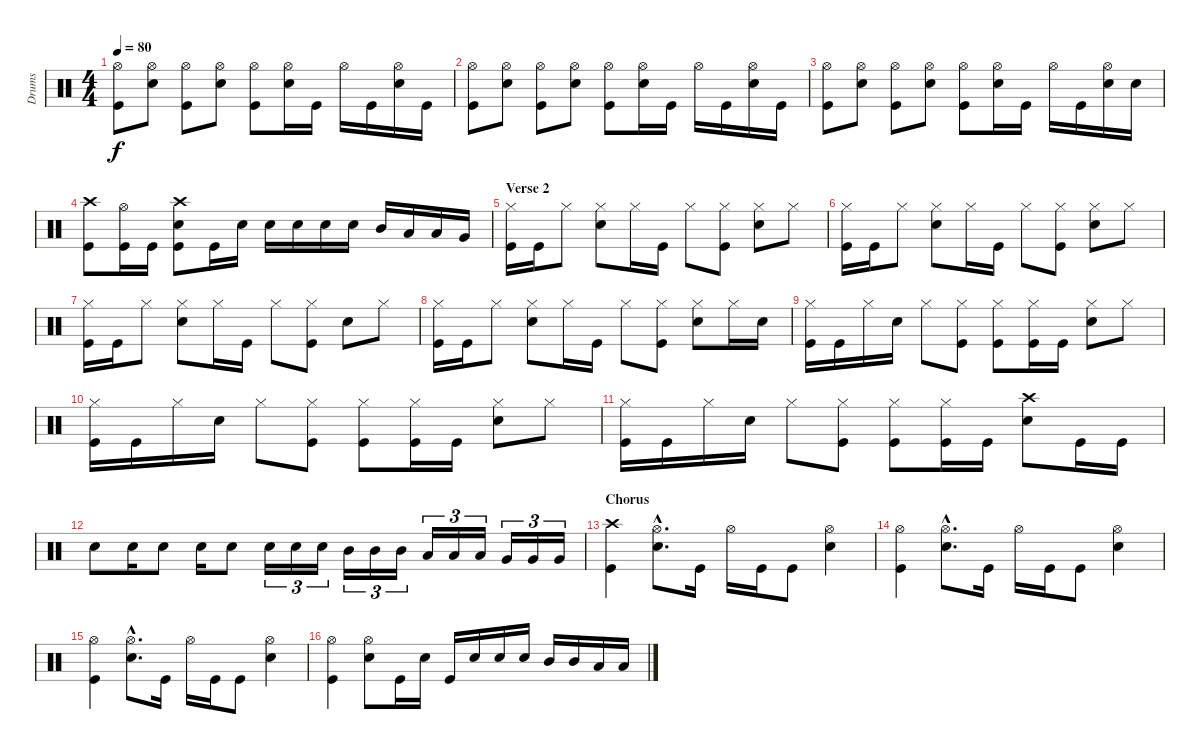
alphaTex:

\track ("Drums" "Drums") {instrument percussion}
\staff {score}
\articulation defaults
\ts (4 4)
\tempo 80
\clef neutral
\ks c
("Hi-Hat (open)" "Kick (hit)").8{dy f} ("Hi-Hat (open)" "Electric Snare (hit)").8 ("Hi-Hat (open)" "Kick (hit)").8 ("Hi-Hat (open)" "Electric Snare (hit)").8 ("Hi-Hat (open)" "Kick (hit)").8 ("Hi-Hat (open)" "Electric Snare (hit)").16 "Kick (hit)".16 "Hi-Hat (open)".16 "Kick (hit)".16 ("Hi-Hat (open)" "Electric Snare (hit)").16 "Kick (hit)".16 |
("Hi-Hat (open)" "Kick (hit)").8 ("Hi-Hat (open)" "Electric Snare (hit)").8 ("Hi-Hat (open)" "Kick (hit)").8 ("Hi-Hat (open)" "Electric Snare (hit)").8 ("Hi-Hat (open)" "Kick (hit)").8 ("Hi-Hat (open)" "Electric Snare (hit)").16 "Kick (hit)".16 "Hi-Hat (open)".16 "Kick (hit)".16 ("Hi-Hat (open)" "Electric Snare (hit)").16 "Kick (hit)".16 |
("Hi-Hat (open)" "Kick (hit)").8 ("Hi-Hat (open)" "Electric Snare (hit)").8 ("Hi-Hat (open)" "Kick (hit)").8 ("Hi-Hat (open)" "Electric Snare (hit)").8 ("Hi-Hat (open)" "Kick (hit)").8 ("Hi-Hat (open)" "Electric Snare (hit)").16 "Kick (hit)".16 "Hi-Hat (open)".16 "Kick (hit)".16 ("Hi-Hat (open)" "Electric Snare (hit)").16 "Electric Snare (hit)".16 |
("Crash high (hit)" "Kick (hit)").8 ("Hi-Hat (open)" "Kick (hit)").16 "Kick (hit)".16 ("Crash high (hit)" "Electric Snare (hit)" "Kick (hit)").8 "Kick (hit)".16 "Electric Snare (hit)".16 "Electric Snare (hit)".16 "Electric Snare (hit)".16 "Electric Snare (hit)".16 "Electric Snare (hit)".16 "Mid Tom (hit)".16 "Low Tom (hit)".16 "Low Tom (hit)".16 "Very Low Tom (hit)".16 |
\section ("" "Verse 2")
("Hi-Hat (closed)" "Kick (hit)").16 "Kick (hit)".16 "Hi-Hat (closed)".8 ("Hi-Hat (closed)" "Electric Snare (hit)").8 "Hi-Hat (closed)".16 "Kick (hit)".16 "Hi-Hat (closed)".8 ("Hi-Hat (closed)" "Kick (hit)").8 ("Hi-Hat (closed)" "Electric Snare (hit)").8 "Hi-Hat (closed)".8 |
("Hi-Hat (closed)" "Kick (hit)").16 "Kick (hit)".16 "Hi-Hat (closed)".8 ("Hi-Hat (closed)" "Electric Snare (hit)").8 "Hi-Hat (closed)".16 "Kick (hit)".16 "Hi-Hat (closed)".8 ("Hi-Hat (closed)" "Kick (hit)").8 ("Hi-Hat (closed)" "Electric Snare (hit)").8 "Hi-Hat (closed)".8 |
("Hi-Hat (closed)" "Kick (hit)").16 "Kick (hit)".16 "Hi-Hat (closed)".8 ("Hi-Hat (closed)" "Electric Snare (hit)").8 "Hi-Hat (closed)".16 "Kick (hit)".16 "Hi-Hat (closed)".8 ("Hi-Hat (closed)" "Kick (hit)").8 "Electric Snare (hit)".8 "Hi-Hat (closed)".8 |
("Hi-Hat (closed)" "Kick (hit)").16 "Kick (hit)".16 "Hi-Hat (closed)".8 ("Hi-Hat (closed)" "Electric Snare (hit)").8 "Hi-Hat (closed)".16 "Kick (hit)".16 "Hi-Hat (closed)".8 ("Hi-Hat (closed)" "Kick (hit)").8 ("Hi-Hat (closed)" "Electric Snare (hit)").8 "Hi-Hat (closed)".16 "Electric Snare (hit)".16 |
("Hi-Hat (closed)" "Kick (hit)").16 "Kick (hit)".16 "Hi-Hat (closed)".16 "Electric Snare (hit)".16 "Hi-Hat (closed)".8 ("Hi-Hat (closed)" "Kick (hit)").8 ("Hi-Hat (closed)" "Kick (hit)").8 ("Hi-Hat (closed)" "Kick (hit)").16 "Kick (hit)".16 ("Hi-Hat (closed)" "Electric Snare (hit)").8 "Hi-Hat (closed)".8 |
("Hi-Hat (closed)" "Kick (hit)").16 "Kick (hit)".16 "Hi-Hat (closed)".16 "Electric Snare (hit)".16 "Hi-Hat (closed)".8 ("Hi-Hat (closed)" "Kick (hit)").8 ("Hi-Hat (closed)" "Kick (hit)").8 ("Hi-Hat (closed)" "Kick (hit)").16 "Kick (hit)".16 ("Hi-Hat (closed)" "Electric Snare (hit)").8 "Hi-Hat (closed)".8 |
("Hi-Hat (closed)" "Kick (hit)").16 "Kick (hit)".16 "Hi-Hat (closed)".16 "Electric Snare (hit)".16 "Hi-Hat (closed)".8 ("Hi-Hat (closed)" "Kick (hit)").8 ("Hi-Hat (closed)" "Kick (hit)").8 ("Hi-Hat (closed)" "Kick (hit)").16 "Kick (hit)".16 ("Crash high (hit)" "Electric Snare (hit)").8 "Kick (hit)".16 "Kick (hit)".16 |
"Electric Snare (hit)".8 "Electric Snare (hit)".16 "Electric Snare (hit)".8 "Electric Snare (hit)".16 "Electric Snare (hit)".8 "Electric Snare (hit)".16{tu (3 2)} "Electric Snare (hit)".16{tu (3 2)} "Electric Snare (hit)".16{tu (3 2)} "Mid Tom (hit)".16{tu (3 2)} "Mid Tom (hit)".16{tu (3 2)} "Mid Tom (hit)".16{tu (3 2)} "Low Tom (hit)".16{tu (3 2)} "Low Tom (hit)".16{tu (3 2)} "Low Tom (hit)".16{tu (3 2)} "Very Low Tom (hit)".16{tu (3 2)} "Very Low Tom (hit)".16{tu (3 2)} "Very Low Tom (hit)".16{tu (3 2)} |
\section ("" "Chorus")
("Crash high (hit)" "Kick (hit)").4 ("Hi-Hat (open)"{hac} "Electric Snare (hit)"{hac}).8{d} "Kick (hit)".16 "Hi-Hat (open)".16 "Kick (hit)".16 "Kick (hit)".8 ("Hi-Hat (open)" "Electric Snare (hit)").4 |
("Hi-Hat (open)" "Kick (hit)").4 ("Hi-Hat (open)"{hac} "Electric Snare (hit)"{hac}).8{d} "Kick (hit)".16 "Hi-Hat (open)".16 "Kick (hit)".16 "Kick (hit)".8 ("Hi-Hat (open)" "Electric Snare (hit)").4 |
("Hi-Hat (open)" "Kick (hit)").4 ("Hi-Hat (open)"{hac} "Electric Snare (hit)"{hac}).8{d} "Kick (hit)".16 "Hi-Hat (open)".16 "Kick (hit)".16 "Kick (hit)".8 ("Hi-Hat (open)" "Electric Snare (hit)").4 |
("Hi-Hat (open)" "Kick (hit)").4 ("Hi-Hat (open)" "Electric Snare (hit)").8 "Kick (hit)".16 "Electric Snare (hit)".16 "Kick (hit)".16 "Electric Snare (hit)".16 "Electric Snare (hit)".16 "Electric Snare (hit)".16 "Mid Tom (hit)".16 "Mid Tom (hit)".16 "Low Tom (hit)".16 "Low Tom (hit)".16
